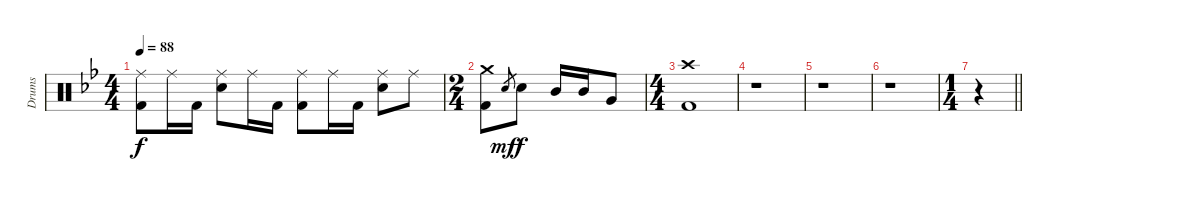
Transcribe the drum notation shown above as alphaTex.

\track ("Drums" "Drums") {instrument percussion}
\staff {score}
\articulation defaults
\ts (4 4)
\tempo 88
\clef neutral
\ks gminor
("Ride (middle)" "Kick (hit) 2").8{dy f} "Ride (middle)".16 "Kick (hit) 2".16 ("Ride (middle)" "Electric Snare (hit)").8 "Ride (middle)".16 "Kick (hit) 2".16 ("Ride (middle)" "Kick (hit) 2").8 "Ride (middle)".16 "Kick (hit) 2".16 ("Ride (middle)" "Electric Snare (hit)").8 "Ride (middle)".8 |
\ts (2 4)
("Crash medium (hit)" "Kick (hit) 2").8 "Electric Snare (hit)".8{gr dy mf} "Electric Snare (hit)".8{dy f} "Mid Tom (hit)".16 "Mid Tom (hit)".16 "Very Low Tom (hit)".8 |
\ts (4 4)
("Crash high (hit)" "Kick (hit) 2").1 |
r.1 |
r.1 |
r.1 |
\ts (1 4)
\barLineRight lightlight
r.4
